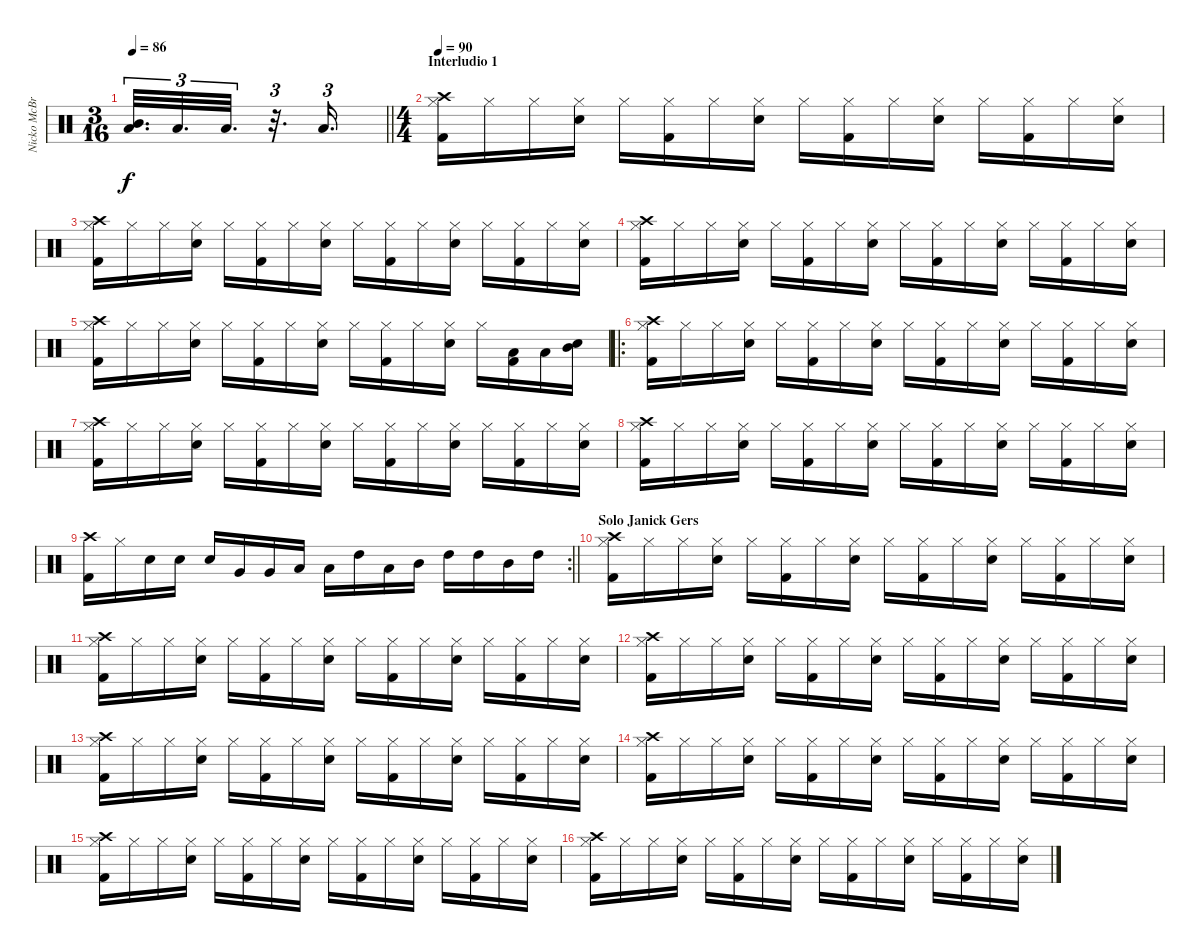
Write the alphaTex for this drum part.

\track ("Nicko McBrain" "Nicko McBr") {instrument percussion}
\staff {score}
\articulation defaults
\ts (3 16)
\tempo 86
\clef neutral
\barLineRight lightlight
\ks c
("Mid Tom (hit)" "Low Tom (hit)").32{d tu (3 2) dy f} "Low Tom (hit)".32{d tu (3 2)} "Low Tom (hit)".32{d tu (3 2)} r.32{d tu (3 2)} "Low Tom (hit)".16{d tu (3 2)} |
\ts (4 4)
\section ("" "Interludio 1")
\tempo 90
("Kick (hit) 2" "Hi-Hat (closed)" "Crash high (hit)").16 "Hi-Hat (closed)".16 "Hi-Hat (closed)".16 ("Snare (hit) 2" "Hi-Hat (closed)").16 "Hi-Hat (closed)".16 ("Kick (hit) 2" "Hi-Hat (closed)").16 "Hi-Hat (closed)".16 ("Snare (hit) 2" "Hi-Hat (closed)").16 "Hi-Hat (closed)".16 ("Kick (hit) 2" "Hi-Hat (closed)").16 "Hi-Hat (closed)".16 ("Snare (hit) 2" "Hi-Hat (closed)").16 "Hi-Hat (closed)".16 ("Kick (hit) 2" "Hi-Hat (closed)").16 "Hi-Hat (closed)".16 ("Snare (hit) 2" "Hi-Hat (closed)").16 |
("Kick (hit) 2" "Hi-Hat (closed)" "Crash high (hit)").16 "Hi-Hat (closed)".16 "Hi-Hat (closed)".16 ("Snare (hit) 2" "Hi-Hat (closed)").16 "Hi-Hat (closed)".16 ("Kick (hit) 2" "Hi-Hat (closed)").16 "Hi-Hat (closed)".16 ("Snare (hit) 2" "Hi-Hat (closed)").16 "Hi-Hat (closed)".16 ("Kick (hit) 2" "Hi-Hat (closed)").16 "Hi-Hat (closed)".16 ("Snare (hit) 2" "Hi-Hat (closed)").16 "Hi-Hat (closed)".16 ("Kick (hit) 2" "Hi-Hat (closed)").16 "Hi-Hat (closed)".16 ("Snare (hit) 2" "Hi-Hat (closed)").16 |
("Kick (hit) 2" "Hi-Hat (closed)" "Crash high (hit)").16 "Hi-Hat (closed)".16 "Hi-Hat (closed)".16 ("Snare (hit) 2" "Hi-Hat (closed)").16 "Hi-Hat (closed)".16 ("Kick (hit) 2" "Hi-Hat (closed)").16 "Hi-Hat (closed)".16 ("Snare (hit) 2" "Hi-Hat (closed)").16 "Hi-Hat (closed)".16 ("Kick (hit) 2" "Hi-Hat (closed)").16 "Hi-Hat (closed)".16 ("Snare (hit) 2" "Hi-Hat (closed)").16 "Hi-Hat (closed)".16 ("Kick (hit) 2" "Hi-Hat (closed)").16 "Hi-Hat (closed)".16 ("Snare (hit) 2" "Hi-Hat (closed)").16 |
("Kick (hit) 2" "Hi-Hat (closed)" "Crash high (hit)").16 "Hi-Hat (closed)".16 "Hi-Hat (closed)".16 ("Snare (hit) 2" "Hi-Hat (closed)").16 "Hi-Hat (closed)".16 ("Kick (hit) 2" "Hi-Hat (closed)").16 "Hi-Hat (closed)".16 ("Snare (hit) 2" "Hi-Hat (closed)").16 "Hi-Hat (closed)".16 ("Kick (hit) 2" "Hi-Hat (closed)").16 "Hi-Hat (closed)".16 ("Snare (hit) 2" "Hi-Hat (closed)").16 "Hi-Hat (closed)".16 ("Low Tom (hit)" "Kick (hit) 2").16 "Low Tom (hit)".16 ("Mid Tom (hit)" "Snare (hit) 2").16 |
\ro
("Kick (hit) 2" "Hi-Hat (closed)" "Crash high (hit)").16 "Hi-Hat (closed)".16 "Hi-Hat (closed)".16 ("Snare (hit) 2" "Hi-Hat (closed)").16 "Hi-Hat (closed)".16 ("Kick (hit) 2" "Hi-Hat (closed)").16 "Hi-Hat (closed)".16 ("Snare (hit) 2" "Hi-Hat (closed)").16 "Hi-Hat (closed)".16 ("Kick (hit) 2" "Hi-Hat (closed)").16 "Hi-Hat (closed)".16 ("Snare (hit) 2" "Hi-Hat (closed)").16 "Hi-Hat (closed)".16 ("Kick (hit) 2" "Hi-Hat (closed)").16 "Hi-Hat (closed)".16 ("Snare (hit) 2" "Hi-Hat (closed)").16 |
("Kick (hit) 2" "Hi-Hat (closed)" "Crash high (hit)").16 "Hi-Hat (closed)".16 "Hi-Hat (closed)".16 ("Snare (hit) 2" "Hi-Hat (closed)").16 "Hi-Hat (closed)".16 ("Kick (hit) 2" "Hi-Hat (closed)").16 "Hi-Hat (closed)".16 ("Snare (hit) 2" "Hi-Hat (closed)").16 "Hi-Hat (closed)".16 ("Kick (hit) 2" "Hi-Hat (closed)").16 "Hi-Hat (closed)".16 ("Snare (hit) 2" "Hi-Hat (closed)").16 "Hi-Hat (closed)".16 ("Kick (hit) 2" "Hi-Hat (closed)").16 "Hi-Hat (closed)".16 ("Snare (hit) 2" "Hi-Hat (closed)").16 |
("Kick (hit) 2" "Hi-Hat (closed)" "Crash high (hit)").16 "Hi-Hat (closed)".16 "Hi-Hat (closed)".16 ("Snare (hit) 2" "Hi-Hat (closed)").16 "Hi-Hat (closed)".16 ("Kick (hit) 2" "Hi-Hat (closed)").16 "Hi-Hat (closed)".16 ("Snare (hit) 2" "Hi-Hat (closed)").16 "Hi-Hat (closed)".16 ("Kick (hit) 2" "Hi-Hat (closed)").16 "Hi-Hat (closed)".16 ("Snare (hit) 2" "Hi-Hat (closed)").16 "Hi-Hat (closed)".16 ("Kick (hit) 2" "Hi-Hat (closed)").16 "Hi-Hat (closed)".16 ("Snare (hit) 2" "Hi-Hat (closed)").16 |
\rc 2
\barLineRight lightlight
("Kick (hit) 2" "Crash high (hit)").16 "Hi-Hat (closed)".16 "Snare (hit) 2".16 "Snare (hit) 2".16 "Snare (hit) 2".16 "Very Low Tom (hit)".16 "Very Low Tom (hit)".16 "Low Tom (hit)".16 "Low Tom (hit)".16 "High Tom (hit)".16 "Low Tom (hit)".16 "Mid Tom (hit)".16 "High Tom (hit)".16 "High Tom (hit)".16 "Mid Tom (hit)".16 "High Tom (hit)".16 |
\section ("" "Solo Janick Gers")
("Kick (hit) 2" "Hi-Hat (closed)" "Crash high (hit)").16 "Hi-Hat (closed)".16 "Hi-Hat (closed)".16 ("Snare (hit) 2" "Hi-Hat (closed)").16 "Hi-Hat (closed)".16 ("Kick (hit) 2" "Hi-Hat (closed)").16 "Hi-Hat (closed)".16 ("Snare (hit) 2" "Hi-Hat (closed)").16 "Hi-Hat (closed)".16 ("Kick (hit) 2" "Hi-Hat (closed)").16 "Hi-Hat (closed)".16 ("Snare (hit) 2" "Hi-Hat (closed)").16 "Hi-Hat (closed)".16 ("Kick (hit) 2" "Hi-Hat (closed)").16 "Hi-Hat (closed)".16 ("Snare (hit) 2" "Hi-Hat (closed)").16 |
("Kick (hit) 2" "Hi-Hat (closed)" "Crash high (hit)").16 "Hi-Hat (closed)".16 "Hi-Hat (closed)".16 ("Snare (hit) 2" "Hi-Hat (closed)").16 "Hi-Hat (closed)".16 ("Kick (hit) 2" "Hi-Hat (closed)").16 "Hi-Hat (closed)".16 ("Snare (hit) 2" "Hi-Hat (closed)").16 "Hi-Hat (closed)".16 ("Kick (hit) 2" "Hi-Hat (closed)").16 "Hi-Hat (closed)".16 ("Snare (hit) 2" "Hi-Hat (closed)").16 "Hi-Hat (closed)".16 ("Kick (hit) 2" "Hi-Hat (closed)").16 "Hi-Hat (closed)".16 ("Snare (hit) 2" "Hi-Hat (closed)").16 |
("Kick (hit) 2" "Hi-Hat (closed)" "Crash high (hit)").16 "Hi-Hat (closed)".16 "Hi-Hat (closed)".16 ("Snare (hit) 2" "Hi-Hat (closed)").16 "Hi-Hat (closed)".16 ("Kick (hit) 2" "Hi-Hat (closed)").16 "Hi-Hat (closed)".16 ("Snare (hit) 2" "Hi-Hat (closed)").16 "Hi-Hat (closed)".16 ("Kick (hit) 2" "Hi-Hat (closed)").16 "Hi-Hat (closed)".16 ("Snare (hit) 2" "Hi-Hat (closed)").16 "Hi-Hat (closed)".16 ("Kick (hit) 2" "Hi-Hat (closed)").16 "Hi-Hat (closed)".16 ("Snare (hit) 2" "Hi-Hat (closed)").16 |
("Kick (hit) 2" "Hi-Hat (closed)" "Crash high (hit)").16 "Hi-Hat (closed)".16 "Hi-Hat (closed)".16 ("Snare (hit) 2" "Hi-Hat (closed)").16 "Hi-Hat (closed)".16 ("Kick (hit) 2" "Hi-Hat (closed)").16 "Hi-Hat (closed)".16 ("Snare (hit) 2" "Hi-Hat (closed)").16 "Hi-Hat (closed)".16 ("Kick (hit) 2" "Hi-Hat (closed)").16 "Hi-Hat (closed)".16 ("Snare (hit) 2" "Hi-Hat (closed)").16 "Hi-Hat (closed)".16 ("Kick (hit) 2" "Hi-Hat (closed)").16 "Hi-Hat (closed)".16 ("Snare (hit) 2" "Hi-Hat (closed)").16 |
("Kick (hit) 2" "Hi-Hat (closed)" "Crash high (hit)").16 "Hi-Hat (closed)".16 "Hi-Hat (closed)".16 ("Snare (hit) 2" "Hi-Hat (closed)").16 "Hi-Hat (closed)".16 ("Kick (hit) 2" "Hi-Hat (closed)").16 "Hi-Hat (closed)".16 ("Snare (hit) 2" "Hi-Hat (closed)").16 "Hi-Hat (closed)".16 ("Kick (hit) 2" "Hi-Hat (closed)").16 "Hi-Hat (closed)".16 ("Snare (hit) 2" "Hi-Hat (closed)").16 "Hi-Hat (closed)".16 ("Kick (hit) 2" "Hi-Hat (closed)").16 "Hi-Hat (closed)".16 ("Snare (hit) 2" "Hi-Hat (closed)").16 |
("Kick (hit) 2" "Hi-Hat (closed)" "Crash high (hit)").16 "Hi-Hat (closed)".16 "Hi-Hat (closed)".16 ("Snare (hit) 2" "Hi-Hat (closed)").16 "Hi-Hat (closed)".16 ("Kick (hit) 2" "Hi-Hat (closed)").16 "Hi-Hat (closed)".16 ("Snare (hit) 2" "Hi-Hat (closed)").16 "Hi-Hat (closed)".16 ("Kick (hit) 2" "Hi-Hat (closed)").16 "Hi-Hat (closed)".16 ("Snare (hit) 2" "Hi-Hat (closed)").16 "Hi-Hat (closed)".16 ("Kick (hit) 2" "Hi-Hat (closed)").16 "Hi-Hat (closed)".16 ("Snare (hit) 2" "Hi-Hat (closed)").16 |
("Kick (hit) 2" "Hi-Hat (closed)" "Crash high (hit)").16 "Hi-Hat (closed)".16 "Hi-Hat (closed)".16 ("Snare (hit) 2" "Hi-Hat (closed)").16 "Hi-Hat (closed)".16 ("Kick (hit) 2" "Hi-Hat (closed)").16 "Hi-Hat (closed)".16 ("Snare (hit) 2" "Hi-Hat (closed)").16 "Hi-Hat (closed)".16 ("Kick (hit) 2" "Hi-Hat (closed)").16 "Hi-Hat (closed)".16 ("Snare (hit) 2" "Hi-Hat (closed)").16 "Hi-Hat (closed)".16 ("Kick (hit) 2" "Hi-Hat (closed)").16 "Hi-Hat (closed)".16 ("Snare (hit) 2" "Hi-Hat (closed)").16
